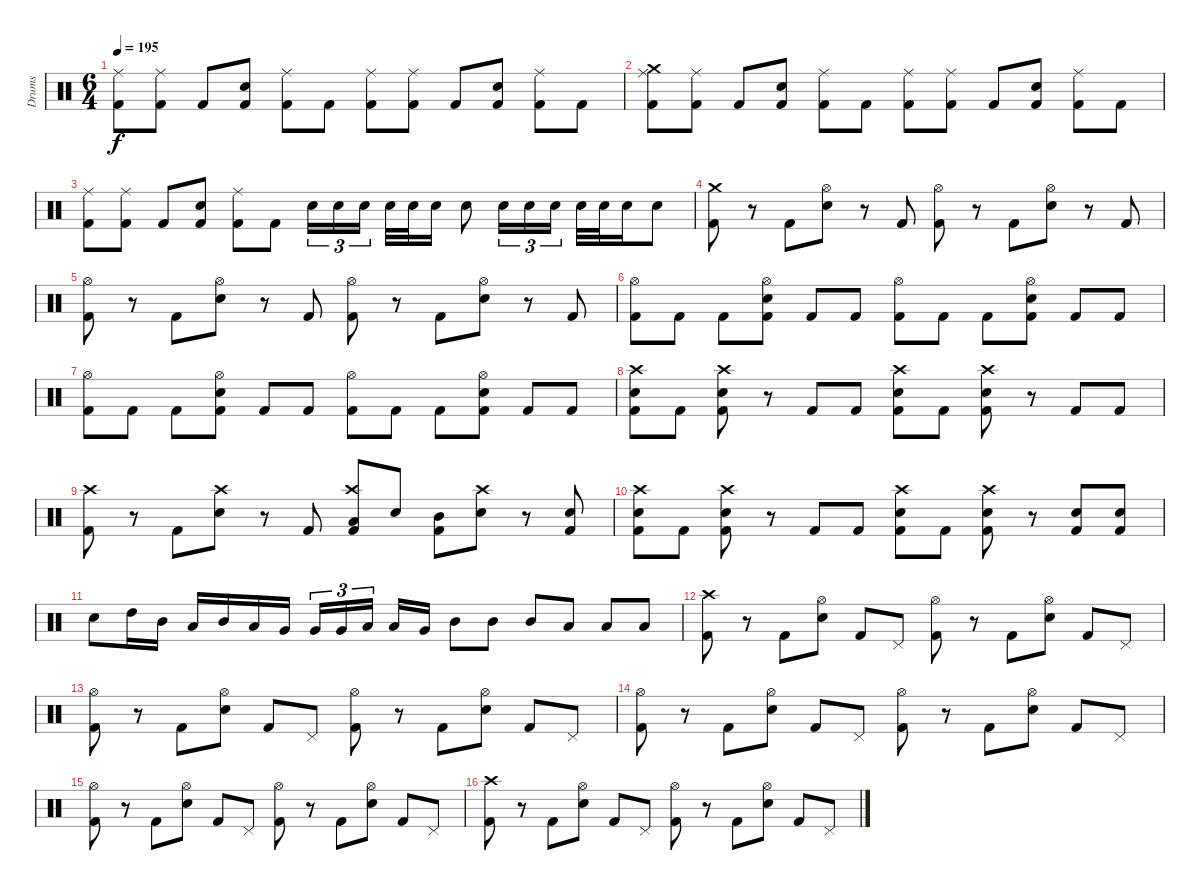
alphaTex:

\track ("Drums" "Drums") {instrument percussion}
\staff {score}
\articulation defaults
\ts (6 4)
\tempo 195
\clef neutral
\ks c
("Ride (middle)" "Kick (hit) 2").8{dy f} ("Ride (middle)" "Kick (hit) 2").8 "Kick (hit) 2".8 ("Electric Snare (hit)" "Kick (hit) 2").8 ("Ride (middle)" "Kick (hit) 2").8 "Kick (hit) 2".8 ("Ride (middle)" "Kick (hit) 2").8 ("Ride (middle)" "Kick (hit) 2").8 "Kick (hit) 2".8 ("Electric Snare (hit)" "Kick (hit) 2").8 ("Ride (middle)" "Kick (hit) 2").8 "Kick (hit) 2".8 |
("Ride (middle)" "Crash medium (hit)" "Kick (hit) 2").8 ("Ride (middle)" "Kick (hit) 2").8 "Kick (hit) 2".8 ("Electric Snare (hit)" "Kick (hit) 2").8 ("Ride (middle)" "Kick (hit) 2").8 "Kick (hit) 2".8 ("Ride (middle)" "Kick (hit) 2").8 ("Ride (middle)" "Kick (hit) 2").8 "Kick (hit) 2".8 ("Electric Snare (hit)" "Kick (hit) 2").8 ("Ride (middle)" "Kick (hit) 2").8 "Kick (hit) 2".8 |
("Ride (middle)" "Kick (hit) 2").8 ("Ride (middle)" "Kick (hit) 2").8 "Kick (hit) 2".8 ("Electric Snare (hit)" "Kick (hit) 2").8 ("Ride (middle)" "Kick (hit) 2").8 "Kick (hit) 2".8 "Electric Snare (hit)".16{tu (3 2)} "Electric Snare (hit)".16{tu (3 2)} "Electric Snare (hit)".16{tu (3 2) beam splitsecondary} "Electric Snare (hit)".32 "Electric Snare (hit)".32 "Electric Snare (hit)".16 "Electric Snare (hit)".8 "Electric Snare (hit)".16{tu (3 2)} "Electric Snare (hit)".16{tu (3 2)} "Electric Snare (hit)".16{tu (3 2) beam splitsecondary} "Electric Snare (hit)".32 "Electric Snare (hit)".32 "Electric Snare (hit)".16 "Electric Snare (hit)".8 |
("Crash medium (hit)" "Kick (hit) 2").8 r.8 "Kick (hit) 2".8 ("Hi-Hat (open)" "Electric Snare (hit)").8 r.8 "Kick (hit) 2".8 ("Hi-Hat (open)" "Kick (hit) 2").8 r.8 "Kick (hit) 2".8 ("Hi-Hat (open)" "Electric Snare (hit)").8 r.8 "Kick (hit) 2".8 |
("Hi-Hat (open)" "Kick (hit) 2").8 r.8 "Kick (hit) 2".8 ("Hi-Hat (open)" "Electric Snare (hit)").8 r.8 "Kick (hit) 2".8 ("Hi-Hat (open)" "Kick (hit) 2").8 r.8 "Kick (hit) 2".8 ("Hi-Hat (open)" "Electric Snare (hit)").8 r.8 "Kick (hit) 2".8 |
("Hi-Hat (open)" "Kick (hit) 2").8 "Kick (hit) 2".8 "Kick (hit) 2".8 ("Hi-Hat (open)" "Electric Snare (hit)" "Kick (hit) 2").8 "Kick (hit) 2".8 "Kick (hit) 2".8 ("Hi-Hat (open)" "Kick (hit) 2").8 "Kick (hit) 2".8 "Kick (hit) 2".8 ("Hi-Hat (open)" "Electric Snare (hit)" "Kick (hit) 2").8 "Kick (hit) 2".8 "Kick (hit) 2".8 |
("Hi-Hat (open)" "Kick (hit) 2").8 "Kick (hit) 2".8 "Kick (hit) 2".8 ("Hi-Hat (open)" "Electric Snare (hit)" "Kick (hit) 2").8 "Kick (hit) 2".8 "Kick (hit) 2".8 ("Hi-Hat (open)" "Kick (hit) 2").8 "Kick (hit) 2".8 "Kick (hit) 2".8 ("Hi-Hat (open)" "Electric Snare (hit)" "Kick (hit) 2").8 "Kick (hit) 2".8 "Kick (hit) 2".8 |
("Crash high (hit)" "Electric Snare (hit)" "Kick (hit) 2").8 "Kick (hit) 2".8 ("Crash high (hit)" "Electric Snare (hit)" "Kick (hit) 2").8 r.8 "Kick (hit) 2".8 "Kick (hit) 2".8 ("Crash high (hit)" "Electric Snare (hit)" "Kick (hit) 2").8 "Kick (hit) 2".8 ("Crash high (hit)" "Electric Snare (hit)" "Kick (hit) 2").8 r.8 "Kick (hit) 2".8 "Kick (hit) 2".8 |
("Crash high (hit)" "Kick (hit) 2").8 r.8 "Kick (hit) 2".8 ("Crash high (hit)" "Electric Snare (hit)").8 r.8 "Kick (hit) 2".8 ("Crash high (hit)" "Low Tom (hit)" "Kick (hit) 2").8 "Electric Snare (hit)".8 ("Mid Tom (hit)" "Kick (hit) 2").8 ("Crash high (hit)" "Electric Snare (hit)").8 r.8 ("Electric Snare (hit)" "Kick (hit) 2").8 |
("Crash high (hit)" "Electric Snare (hit)" "Kick (hit) 2").8 "Kick (hit) 2".8 ("Crash high (hit)" "Electric Snare (hit)" "Kick (hit) 2").8 r.8 "Kick (hit) 2".8 "Kick (hit) 2".8 ("Crash high (hit)" "Electric Snare (hit)" "Kick (hit) 2").8 "Kick (hit) 2".8 ("Crash high (hit)" "Electric Snare (hit)" "Kick (hit) 2").8 r.8 ("Electric Snare (hit)" "Kick (hit) 2").8 ("Electric Snare (hit)" "Kick (hit) 2").8 |
"Electric Snare (hit)".8 "High Tom (hit)".16 "Mid Tom (hit)".16 "Low Tom (hit)".16 "Mid Tom (hit)".16 "Low Tom (hit)".16 "Very Low Tom (hit)".16{beam splitsecondary} "Very Low Tom (hit)".16{tu (3 2)} "Very Low Tom (hit)".16{tu (3 2)} "Low Floor Tom (hit)".16{tu (3 2) beam splitsecondary} "Low Tom (hit)".16 "Very Low Tom (hit)".16 "Mid Tom (hit)".8 "Mid Tom (hit)".8 "Mid Tom (hit)".8 "Low Tom (hit)".8 "Low Tom (hit)".8 "Low Tom (hit)".8 |
("Crash high (hit)" "Kick (hit) 2").8 r.8 "Kick (hit) 2".8 ("Hi-Hat (open)" "Electric Snare (hit)").8 "Kick (hit) 2".8 "Pedal Hi-Hat (hit)".8 ("Hi-Hat (open)" "Kick (hit) 2").8 r.8 "Kick (hit) 2".8 ("Hi-Hat (open)" "Electric Snare (hit)").8 "Kick (hit) 2".8 "Pedal Hi-Hat (hit)".8 |
("Hi-Hat (open)" "Kick (hit) 2").8 r.8 "Kick (hit) 2".8 ("Hi-Hat (open)" "Electric Snare (hit)").8 "Kick (hit) 2".8 "Pedal Hi-Hat (hit)".8 ("Hi-Hat (open)" "Kick (hit) 2").8 r.8 "Kick (hit) 2".8 ("Hi-Hat (open)" "Electric Snare (hit)").8 "Kick (hit) 2".8 "Pedal Hi-Hat (hit)".8 |
("Hi-Hat (open)" "Kick (hit) 2").8 r.8 "Kick (hit) 2".8 ("Hi-Hat (open)" "Electric Snare (hit)").8 "Kick (hit) 2".8 "Pedal Hi-Hat (hit)".8 ("Hi-Hat (open)" "Kick (hit) 2").8 r.8 "Kick (hit) 2".8 ("Hi-Hat (open)" "Electric Snare (hit)").8 "Kick (hit) 2".8 "Pedal Hi-Hat (hit)".8 |
("Hi-Hat (open)" "Kick (hit) 2").8 r.8 "Kick (hit) 2".8 ("Hi-Hat (open)" "Electric Snare (hit)").8 "Kick (hit) 2".8 "Pedal Hi-Hat (hit)".8 ("Hi-Hat (open)" "Kick (hit) 2").8 r.8 "Kick (hit) 2".8 ("Hi-Hat (open)" "Electric Snare (hit)").8 "Kick (hit) 2".8 "Pedal Hi-Hat (hit)".8 |
("Crash high (hit)" "Kick (hit) 2").8 r.8 "Kick (hit) 2".8 ("Hi-Hat (open)" "Electric Snare (hit)").8 "Kick (hit) 2".8 "Pedal Hi-Hat (hit)".8 ("Hi-Hat (open)" "Kick (hit) 2").8 r.8 "Kick (hit) 2".8 ("Hi-Hat (open)" "Electric Snare (hit)").8 "Kick (hit) 2".8 "Pedal Hi-Hat (hit)".8
